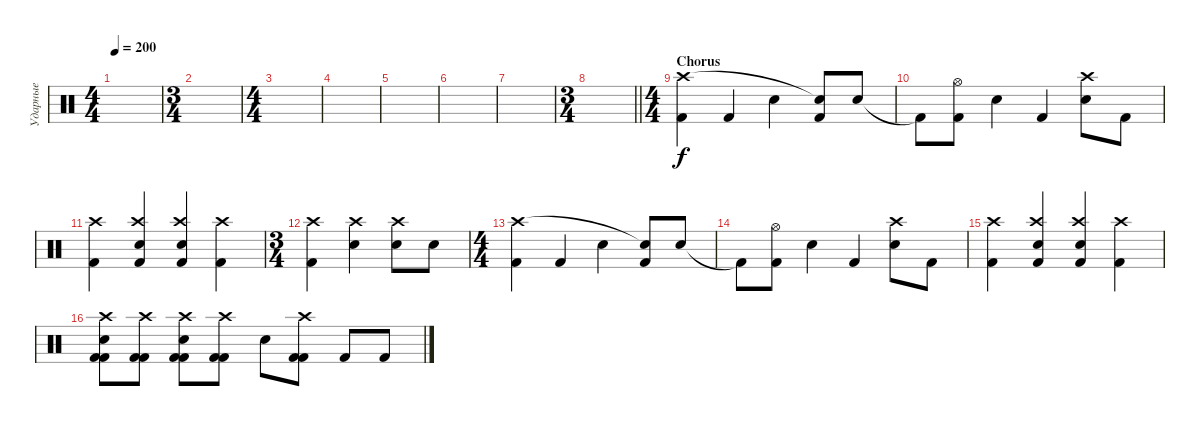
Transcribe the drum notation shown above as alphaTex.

\track ("Ударные" "Ударные") {instrument percussion}
\staff {score}
\articulation defaults
\ts (4 4)
\tempo 200
\clef neutral
\ks c
|
\ts (3 4)
|
\ts (4 4)
|
|
|
|
|
\ts (3 4)
\barLineRight lightlight
|
\ts (4 4)
\section ("" "Chorus")
("Kick (hit) 2" "Crash high (hit)").4 "Kick (hit) 2".4 "Electric Snare (hit)".4 ("Kick (hit) 2" "Snare (hit)"{t}).8 "Electric Snare (hit)".8 |
"Kick (hit) 2"{t}.8 ("Hi-Hat (open)" "Kick (hit) 2").8 "Electric Snare (hit)".4 "Kick (hit) 2".4 ("Crash high (hit)" "Electric Snare (hit)").8 "Kick (hit) 2".8 |
("Crash high (hit)" "Kick (hit) 2").4 ("Crash high (hit)" "Kick (hit) 2" "Electric Snare (hit)").4 ("Crash high (hit)" "Kick (hit) 2" "Electric Snare (hit)").4 ("Crash high (hit)" "Kick (hit) 2").4 |
\ts (3 4)
("Crash high (hit)" "Kick (hit) 2").4 ("Crash high (hit)" "Electric Snare (hit)").4 ("Crash high (hit)" "Electric Snare (hit)").8 "Electric Snare (hit)".8 |
\ts (4 4)
("Kick (hit) 2" "Crash high (hit)").4 "Kick (hit) 2".4 "Electric Snare (hit)".4 ("Kick (hit) 2" "Snare (hit)"{t}).8 "Electric Snare (hit)".8 |
"Kick (hit) 2"{t}.8 ("Hi-Hat (open)" "Kick (hit) 2").8 "Electric Snare (hit)".4 "Kick (hit) 2".4 ("Crash high (hit)" "Electric Snare (hit)").8 "Kick (hit) 2".8 |
("Crash high (hit)" "Kick (hit) 2").4 ("Crash high (hit)" "Kick (hit) 2" "Electric Snare (hit)").4 ("Crash high (hit)" "Kick (hit) 2" "Electric Snare (hit)").4 ("Crash high (hit)" "Kick (hit) 2").4 |
("Crash high (hit)" "Kick (hit) 2" "Kick (hit) 2" "Electric Snare (hit)").8 ("Crash high (hit)" "Kick (hit) 2" "Kick (hit) 2").8 ("Crash high (hit)" "Kick (hit) 2" "Kick (hit) 2" "Electric Snare (hit)").8 ("Crash high (hit)" "Kick (hit) 2" "Kick (hit) 2").8 "Electric Snare (hit)".8 ("Crash high (hit)" "Kick (hit) 2" "Kick (hit) 2").8 "Kick (hit) 2".8 "Kick (hit) 2".8
